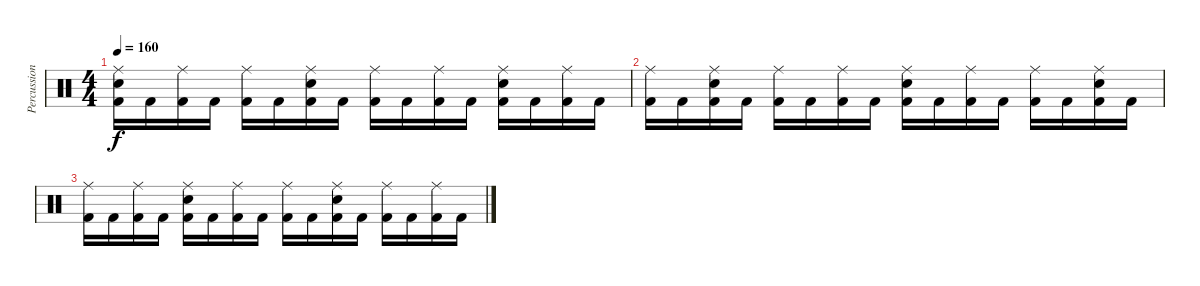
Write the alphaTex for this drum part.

\track ("Percussions" "Percussion") {instrument percussion}
\staff {score}
\articulation defaults
\ts (4 4)
\tempo 160
\clef neutral
\ks c
("Kick (hit) 2" "Electric Snare (hit)" "Ride (middle)").16{dy f} "Kick (hit) 2".16 ("Kick (hit) 2" "Ride (middle)").16 "Kick (hit) 2".16 ("Kick (hit) 2" "Ride (middle)").16 "Kick (hit) 2".16 ("Kick (hit) 2" "Electric Snare (hit)" "Ride (middle)").16 "Kick (hit) 2".16 ("Kick (hit) 2" "Ride (middle)").16 "Kick (hit) 2".16 ("Kick (hit) 2" "Ride (middle)").16 "Kick (hit) 2".16 ("Kick (hit) 2" "Electric Snare (hit)" "Ride (middle)").16 "Kick (hit) 2".16 ("Kick (hit) 2" "Ride (middle)").16 "Kick (hit) 2".16 |
("Kick (hit) 2" "Ride (middle)").16 "Kick (hit) 2".16 ("Kick (hit) 2" "Electric Snare (hit)" "Ride (middle)").16 "Kick (hit) 2".16 ("Kick (hit) 2" "Ride (middle)").16 "Kick (hit) 2".16 ("Kick (hit) 2" "Ride (middle)").16 "Kick (hit) 2".16 ("Kick (hit) 2" "Electric Snare (hit)" "Ride (middle)").16 "Kick (hit) 2".16 ("Kick (hit) 2" "Ride (middle)").16 "Kick (hit) 2".16 ("Kick (hit) 2" "Ride (middle)").16 "Kick (hit) 2".16 ("Kick (hit) 2" "Electric Snare (hit)" "Ride (middle)").16 "Kick (hit) 2".16 |
("Kick (hit) 2" "Ride (middle)").16 "Kick (hit) 2".16 ("Kick (hit) 2" "Ride (middle)").16 "Kick (hit) 2".16 ("Kick (hit) 2" "Electric Snare (hit)" "Ride (middle)").16 "Kick (hit) 2".16 ("Kick (hit) 2" "Ride (middle)").16 "Kick (hit) 2".16 ("Kick (hit) 2" "Ride (middle)").16 "Kick (hit) 2".16 ("Kick (hit) 2" "Electric Snare (hit)" "Ride (middle)").16 "Kick (hit) 2".16 ("Kick (hit) 2" "Ride (middle)").16 "Kick (hit) 2".16 ("Kick (hit) 2" "Ride (middle)").16 "Kick (hit) 2".16
